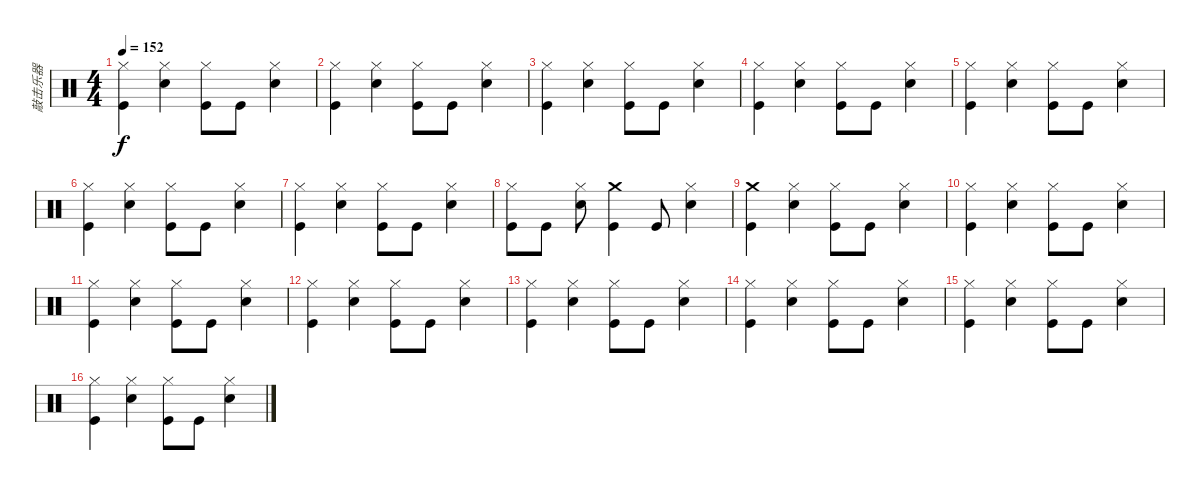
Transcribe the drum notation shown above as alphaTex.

\track ("敲击乐器" "敲击乐器") {instrument percussion}
\staff {score}
\articulation defaults
\ts (4 4)
\tempo 152
\clef neutral
\ks c
("Hi-Hat (closed)" "Kick (hit)").4{dy f} ("Hi-Hat (closed)" "Electric Snare (hit)").4 ("Hi-Hat (closed)" "Kick (hit)").8 "Kick (hit)".8 ("Hi-Hat (closed)" "Electric Snare (hit)").4 |
("Hi-Hat (closed)" "Kick (hit)").4 ("Hi-Hat (closed)" "Electric Snare (hit)").4 ("Hi-Hat (closed)" "Kick (hit)").8 "Kick (hit)".8 ("Hi-Hat (closed)" "Electric Snare (hit)").4 |
("Hi-Hat (closed)" "Kick (hit)").4 ("Hi-Hat (closed)" "Electric Snare (hit)").4 ("Hi-Hat (closed)" "Kick (hit)").8 "Kick (hit)".8 ("Hi-Hat (closed)" "Electric Snare (hit)").4 |
("Hi-Hat (closed)" "Kick (hit)").4 ("Hi-Hat (closed)" "Electric Snare (hit)").4 ("Hi-Hat (closed)" "Kick (hit)").8 "Kick (hit)".8 ("Hi-Hat (closed)" "Electric Snare (hit)").4 |
("Hi-Hat (closed)" "Kick (hit)").4 ("Hi-Hat (closed)" "Electric Snare (hit)").4 ("Hi-Hat (closed)" "Kick (hit)").8 "Kick (hit)".8 ("Hi-Hat (closed)" "Electric Snare (hit)").4 |
("Hi-Hat (closed)" "Kick (hit)").4 ("Hi-Hat (closed)" "Electric Snare (hit)").4 ("Hi-Hat (closed)" "Kick (hit)").8 "Kick (hit)".8 ("Hi-Hat (closed)" "Electric Snare (hit)").4 |
("Hi-Hat (closed)" "Kick (hit)").4 ("Hi-Hat (closed)" "Electric Snare (hit)").4 ("Hi-Hat (closed)" "Kick (hit)").8 "Kick (hit)".8 ("Hi-Hat (closed)" "Electric Snare (hit)").4 |
("Hi-Hat (closed)" "Kick (hit)").8 "Kick (hit)".8 ("Hi-Hat (closed)" "Electric Snare (hit)").8 ("Crash medium (hit)" "Kick (hit)").4 "Kick (hit)".8 ("Hi-Hat (closed)" "Electric Snare (hit)").4 |
("Crash medium (hit)" "Kick (hit)").4 ("Hi-Hat (closed)" "Electric Snare (hit)").4 ("Hi-Hat (closed)" "Kick (hit)").8 "Kick (hit)".8 ("Hi-Hat (closed)" "Electric Snare (hit)").4 |
("Hi-Hat (closed)" "Kick (hit)").4 ("Hi-Hat (closed)" "Electric Snare (hit)").4 ("Hi-Hat (closed)" "Kick (hit)").8 "Kick (hit)".8 ("Hi-Hat (closed)" "Electric Snare (hit)").4 |
("Hi-Hat (closed)" "Kick (hit)").4 ("Hi-Hat (closed)" "Electric Snare (hit)").4 ("Hi-Hat (closed)" "Kick (hit)").8 "Kick (hit)".8 ("Hi-Hat (closed)" "Electric Snare (hit)").4 |
("Hi-Hat (closed)" "Kick (hit)").4 ("Hi-Hat (closed)" "Electric Snare (hit)").4 ("Hi-Hat (closed)" "Kick (hit)").8 "Kick (hit)".8 ("Hi-Hat (closed)" "Electric Snare (hit)").4 |
("Hi-Hat (closed)" "Kick (hit)").4 ("Hi-Hat (closed)" "Electric Snare (hit)").4 ("Hi-Hat (closed)" "Kick (hit)").8 "Kick (hit)".8 ("Hi-Hat (closed)" "Electric Snare (hit)").4 |
("Hi-Hat (closed)" "Kick (hit)").4 ("Hi-Hat (closed)" "Electric Snare (hit)").4 ("Hi-Hat (closed)" "Kick (hit)").8 "Kick (hit)".8 ("Hi-Hat (closed)" "Electric Snare (hit)").4 |
("Hi-Hat (closed)" "Kick (hit)").4 ("Hi-Hat (closed)" "Electric Snare (hit)").4 ("Hi-Hat (closed)" "Kick (hit)").8 "Kick (hit)".8 ("Hi-Hat (closed)" "Electric Snare (hit)").4 |
("Hi-Hat (closed)" "Kick (hit)").4 ("Hi-Hat (closed)" "Electric Snare (hit)").4 ("Hi-Hat (closed)" "Kick (hit)").8 "Kick (hit)".8 ("Hi-Hat (closed)" "Electric Snare (hit)").4
